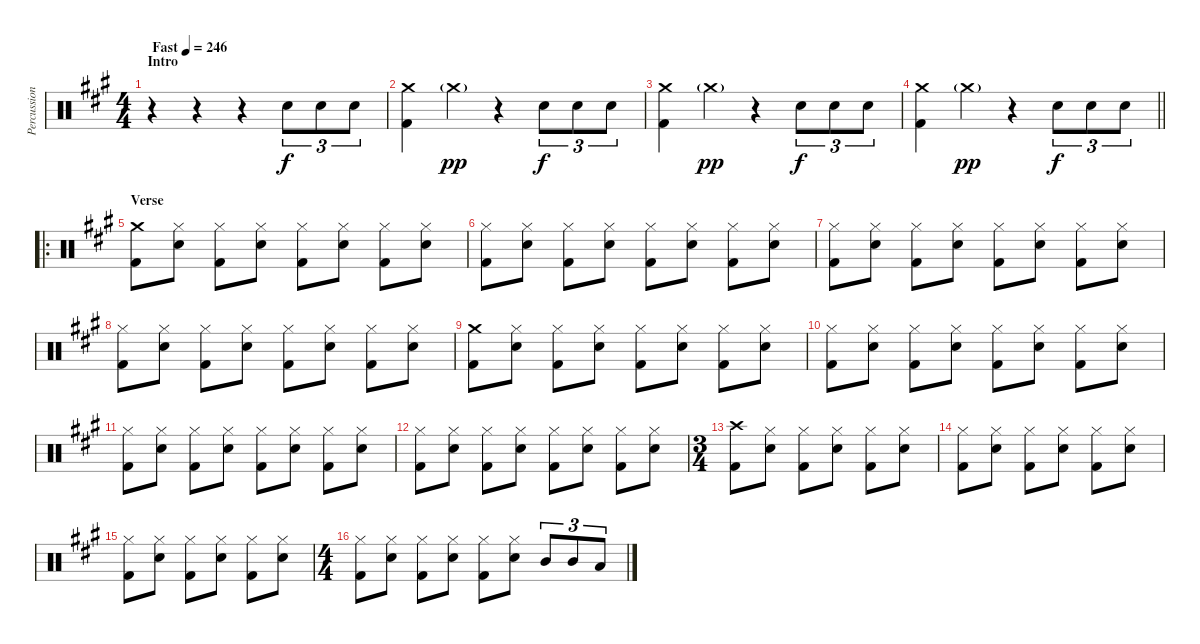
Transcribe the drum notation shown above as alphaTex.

\track ("Percussion" "Percussion") {instrument percussion}
\staff {score}
\articulation defaults
\ts (4 4)
\section ("" "Intro")
\tempo (246 "Fast")
\clef neutral
\ks f#minor
r.4{dy f} r.4 r.4 "Electric Snare (hit)".8{tu (3 2)} "Electric Snare (hit)".8{tu (3 2)} "Electric Snare (hit)".8{tu (3 2)} |
("Crash medium (hit)" "Kick (hit) 2").4 "Crash medium (hit)"{g}.4{dy pp} r.4 "Electric Snare (hit)".8{tu (3 2) dy f} "Electric Snare (hit)".8{tu (3 2)} "Electric Snare (hit)".8{tu (3 2)} |
("Crash medium (hit)" "Kick (hit) 2").4 "Crash medium (hit)"{g}.4{dy pp} r.4 "Electric Snare (hit)".8{tu (3 2) dy f} "Electric Snare (hit)".8{tu (3 2)} "Electric Snare (hit)".8{tu (3 2)} |
\barLineRight lightlight
("Crash medium (hit)" "Kick (hit) 2").4 "Crash medium (hit)"{g}.4{dy pp} r.4 "Electric Snare (hit)".8{tu (3 2) dy f} "Electric Snare (hit)".8{tu (3 2)} "Electric Snare (hit)".8{tu (3 2)} |
\ro
\section ("" "Verse")
("Crash medium (hit)" "Kick (hit) 2").8 ("Hi-Hat (closed)" "Electric Snare (hit)").8 ("Hi-Hat (closed)" "Kick (hit) 2").8 ("Hi-Hat (closed)" "Electric Snare (hit)").8 ("Hi-Hat (closed)" "Kick (hit) 2").8 ("Hi-Hat (closed)" "Electric Snare (hit)").8 ("Hi-Hat (closed)" "Kick (hit) 2").8 ("Hi-Hat (closed)" "Electric Snare (hit)").8 |
("Hi-Hat (closed)" "Kick (hit) 2").8 ("Hi-Hat (closed)" "Electric Snare (hit)").8 ("Hi-Hat (closed)" "Kick (hit) 2").8 ("Hi-Hat (closed)" "Electric Snare (hit)").8 ("Hi-Hat (closed)" "Kick (hit) 2").8 ("Hi-Hat (closed)" "Electric Snare (hit)").8 ("Hi-Hat (closed)" "Kick (hit) 2").8 ("Hi-Hat (closed)" "Electric Snare (hit)").8 |
("Hi-Hat (closed)" "Kick (hit) 2").8 ("Hi-Hat (closed)" "Electric Snare (hit)").8 ("Hi-Hat (closed)" "Kick (hit) 2").8 ("Hi-Hat (closed)" "Electric Snare (hit)").8 ("Hi-Hat (closed)" "Kick (hit) 2").8 ("Hi-Hat (closed)" "Electric Snare (hit)").8 ("Hi-Hat (closed)" "Kick (hit) 2").8 ("Hi-Hat (closed)" "Electric Snare (hit)").8 |
("Hi-Hat (closed)" "Kick (hit) 2").8 ("Hi-Hat (closed)" "Electric Snare (hit)").8 ("Hi-Hat (closed)" "Kick (hit) 2").8 ("Hi-Hat (closed)" "Electric Snare (hit)").8 ("Hi-Hat (closed)" "Kick (hit) 2").8 ("Hi-Hat (closed)" "Electric Snare (hit)").8 ("Hi-Hat (closed)" "Kick (hit) 2").8 ("Hi-Hat (closed)" "Electric Snare (hit)").8 |
("Crash medium (hit)" "Kick (hit) 2").8 ("Hi-Hat (closed)" "Electric Snare (hit)").8 ("Hi-Hat (closed)" "Kick (hit) 2").8 ("Hi-Hat (closed)" "Electric Snare (hit)").8 ("Hi-Hat (closed)" "Kick (hit) 2").8 ("Hi-Hat (closed)" "Electric Snare (hit)").8 ("Hi-Hat (closed)" "Kick (hit) 2").8 ("Hi-Hat (closed)" "Electric Snare (hit)").8 |
("Hi-Hat (closed)" "Kick (hit) 2").8 ("Hi-Hat (closed)" "Electric Snare (hit)").8 ("Hi-Hat (closed)" "Kick (hit) 2").8 ("Hi-Hat (closed)" "Electric Snare (hit)").8 ("Hi-Hat (closed)" "Kick (hit) 2").8 ("Hi-Hat (closed)" "Electric Snare (hit)").8 ("Hi-Hat (closed)" "Kick (hit) 2").8 ("Hi-Hat (closed)" "Electric Snare (hit)").8 |
("Hi-Hat (closed)" "Kick (hit) 2").8 ("Hi-Hat (closed)" "Electric Snare (hit)").8 ("Hi-Hat (closed)" "Kick (hit) 2").8 ("Hi-Hat (closed)" "Electric Snare (hit)").8 ("Hi-Hat (closed)" "Kick (hit) 2").8 ("Hi-Hat (closed)" "Electric Snare (hit)").8 ("Hi-Hat (closed)" "Kick (hit) 2").8 ("Hi-Hat (closed)" "Electric Snare (hit)").8 |
("Hi-Hat (closed)" "Kick (hit) 2").8 ("Hi-Hat (closed)" "Electric Snare (hit)").8 ("Hi-Hat (closed)" "Kick (hit) 2").8 ("Hi-Hat (closed)" "Electric Snare (hit)").8 ("Hi-Hat (closed)" "Kick (hit) 2").8 ("Hi-Hat (closed)" "Electric Snare (hit)").8 ("Hi-Hat (closed)" "Kick (hit) 2").8 ("Hi-Hat (closed)" "Electric Snare (hit)").8 |
\ts (3 4)
("Crash high (hit)" "Kick (hit) 2").8 ("Hi-Hat (closed)" "Electric Snare (hit)").8 ("Hi-Hat (closed)" "Kick (hit) 2").8 ("Hi-Hat (closed)" "Electric Snare (hit)").8 ("Hi-Hat (closed)" "Kick (hit) 2").8 ("Hi-Hat (closed)" "Electric Snare (hit)").8 |
("Hi-Hat (closed)" "Kick (hit) 2").8 ("Hi-Hat (closed)" "Electric Snare (hit)").8 ("Hi-Hat (closed)" "Kick (hit) 2").8 ("Hi-Hat (closed)" "Electric Snare (hit)").8 ("Hi-Hat (closed)" "Kick (hit) 2").8 ("Hi-Hat (closed)" "Electric Snare (hit)").8 |
("Hi-Hat (closed)" "Kick (hit) 2").8 ("Hi-Hat (closed)" "Electric Snare (hit)").8 ("Hi-Hat (closed)" "Kick (hit) 2").8 ("Hi-Hat (closed)" "Electric Snare (hit)").8 ("Hi-Hat (closed)" "Kick (hit) 2").8 ("Hi-Hat (closed)" "Electric Snare (hit)").8 |
\ts (4 4)
("Hi-Hat (closed)" "Kick (hit) 2").8 ("Hi-Hat (closed)" "Electric Snare (hit)").8 ("Hi-Hat (closed)" "Kick (hit) 2").8 ("Hi-Hat (closed)" "Electric Snare (hit)").8 ("Hi-Hat (closed)" "Kick (hit) 2").8 ("Hi-Hat (closed)" "Electric Snare (hit)").8 "Mid Tom (hit)".8{tu (3 2)} "Mid Tom (hit)".8{tu (3 2)} "Low Tom (hit)".8{tu (3 2)}
